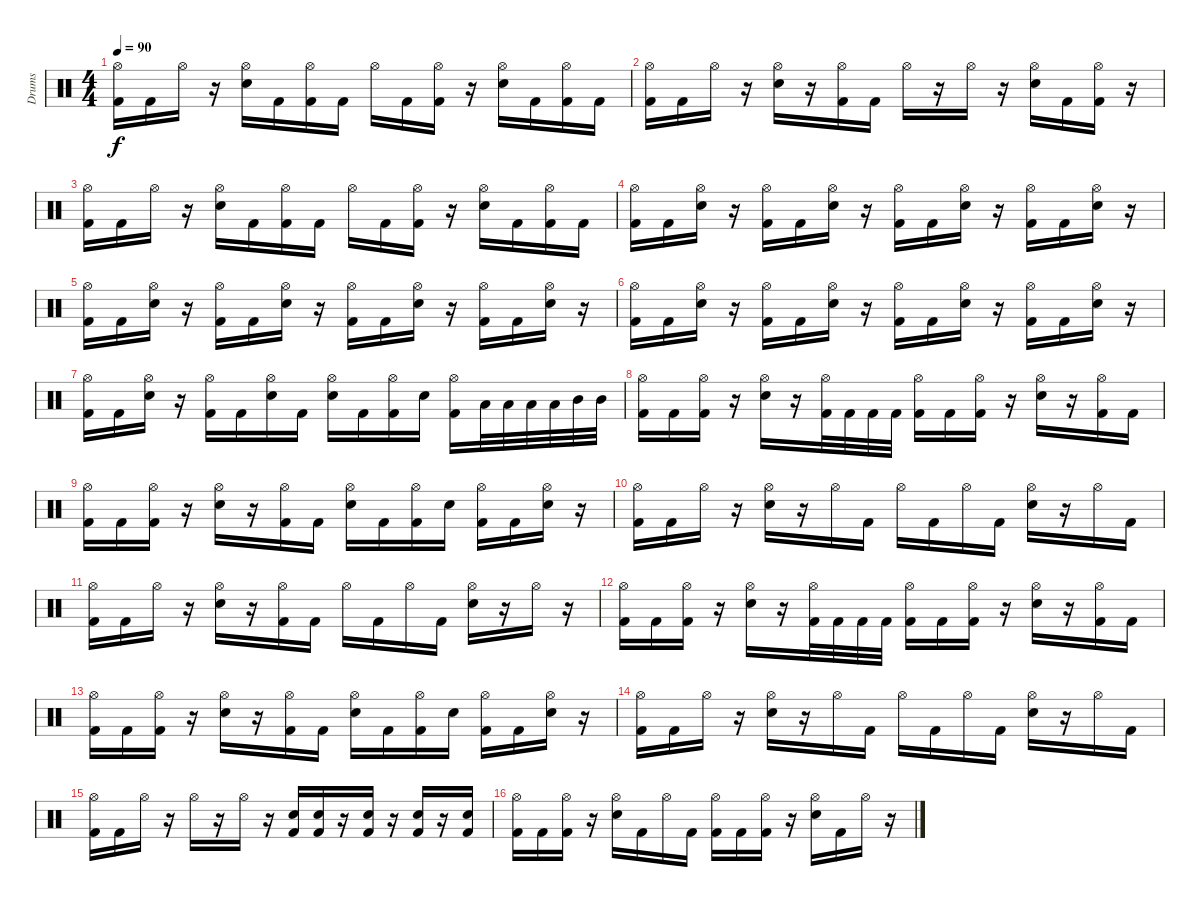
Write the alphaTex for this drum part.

\track ("Drums" "Drums") {instrument percussion}
\staff {score}
\articulation defaults
\ts (4 4)
\tempo 90
\clef neutral
\ks c
("Hi-Hat (open)" "Kick (hit) 2").16{dy f} "Kick (hit) 2".16 "Hi-Hat (open)".16 r.16 ("Hi-Hat (open)" "Snare (hit) 2").16 "Kick (hit) 2".16 ("Hi-Hat (open)" "Kick (hit) 2").16 "Kick (hit) 2".16 "Hi-Hat (open)".16 "Kick (hit) 2".16 ("Hi-Hat (open)" "Kick (hit) 2").16 r.16 ("Hi-Hat (open)" "Snare (hit) 2").16 "Kick (hit) 2".16 ("Hi-Hat (open)" "Kick (hit) 2").16 "Kick (hit) 2".16 |
("Hi-Hat (open)" "Kick (hit) 2").16 "Kick (hit) 2".16 "Hi-Hat (open)".16 r.16 ("Hi-Hat (open)" "Snare (hit) 2").16 r.16 ("Hi-Hat (open)" "Kick (hit) 2").16 "Kick (hit) 2".16 "Hi-Hat (open)".16 r.16 "Hi-Hat (open)".16 r.16 ("Hi-Hat (open)" "Snare (hit) 2").16 "Kick (hit) 2".16 ("Hi-Hat (open)" "Kick (hit) 2").16 r.16 |
("Hi-Hat (open)" "Kick (hit) 2").16 "Kick (hit) 2".16 "Hi-Hat (open)".16 r.16 ("Hi-Hat (open)" "Snare (hit) 2").16 "Kick (hit) 2".16 ("Hi-Hat (open)" "Kick (hit) 2").16 "Kick (hit) 2".16 "Hi-Hat (open)".16 "Kick (hit) 2".16 ("Hi-Hat (open)" "Kick (hit) 2").16 r.16 ("Hi-Hat (open)" "Snare (hit) 2").16 "Kick (hit) 2".16 ("Hi-Hat (open)" "Kick (hit) 2").16 "Kick (hit) 2".16 |
("Hi-Hat (open)" "Kick (hit) 2").16 "Kick (hit) 2".16 ("Hi-Hat (open)" "Snare (hit) 2").16 r.16 ("Hi-Hat (open)" "Kick (hit) 2").16 "Kick (hit) 2".16 ("Hi-Hat (open)" "Snare (hit) 2").16 r.16 ("Hi-Hat (open)" "Kick (hit) 2").16 "Kick (hit) 2".16 ("Hi-Hat (open)" "Snare (hit) 2").16 r.16 ("Hi-Hat (open)" "Kick (hit) 2").16 "Kick (hit) 2".16 ("Hi-Hat (open)" "Snare (hit) 2").16 r.16 |
("Hi-Hat (open)" "Kick (hit) 2").16 "Kick (hit) 2".16 ("Hi-Hat (open)" "Snare (hit) 2").16 r.16 ("Hi-Hat (open)" "Kick (hit) 2").16 "Kick (hit) 2".16 ("Hi-Hat (open)" "Snare (hit) 2").16 r.16 ("Hi-Hat (open)" "Kick (hit) 2").16 "Kick (hit) 2".16 ("Hi-Hat (open)" "Snare (hit) 2").16 r.16 ("Hi-Hat (open)" "Kick (hit) 2").16 "Kick (hit) 2".16 ("Hi-Hat (open)" "Snare (hit) 2").16 r.16 |
("Hi-Hat (open)" "Kick (hit) 2").16 "Kick (hit) 2".16 ("Hi-Hat (open)" "Snare (hit) 2").16 r.16 ("Hi-Hat (open)" "Kick (hit) 2").16 "Kick (hit) 2".16 ("Hi-Hat (open)" "Snare (hit) 2").16 r.16 ("Hi-Hat (open)" "Kick (hit) 2").16 "Kick (hit) 2".16 ("Hi-Hat (open)" "Snare (hit) 2").16 r.16 ("Hi-Hat (open)" "Kick (hit) 2").16 "Kick (hit) 2".16 ("Hi-Hat (open)" "Snare (hit) 2").16 r.16 |
("Hi-Hat (open)" "Kick (hit) 2").16 "Kick (hit) 2".16 ("Hi-Hat (open)" "Snare (hit) 2").16 r.16 ("Hi-Hat (open)" "Kick (hit) 2").16 "Kick (hit) 2".16 ("Hi-Hat (open)" "Snare (hit) 2").16 "Kick (hit) 2".16 ("Hi-Hat (open)" "Snare (hit) 2").16 "Kick (hit) 2".16 ("Hi-Hat (open)" "Kick (hit) 2").16 "Snare (hit) 2".16 ("Hi-Hat (open)" "Kick (hit) 2").16 "Low Floor Tom (hit)".32 "Low Floor Tom (hit)".32 "Low Tom (hit)".32 "Low Tom (hit)".32 "Mid Tom (hit)".32 "Mid Tom (hit)".32 |
("Hi-Hat (open)" "Kick (hit) 2").16 "Kick (hit) 2".16 ("Hi-Hat (open)" "Kick (hit) 2").16 r.16 ("Hi-Hat (open)" "Snare (hit) 2").16 r.16 ("Hi-Hat (open)" "Kick (hit) 2").32 "Kick (hit) 2".32 "Kick (hit) 2".32 "Kick (hit) 2".32 ("Hi-Hat (open)" "Kick (hit) 2").16 "Kick (hit) 2".16 ("Hi-Hat (open)" "Kick (hit) 2").16 r.16 ("Hi-Hat (open)" "Snare (hit) 2").16 r.16 ("Hi-Hat (open)" "Kick (hit) 2").16 "Kick (hit) 2".16 |
("Hi-Hat (open)" "Kick (hit) 2").16 "Kick (hit) 2".16 ("Hi-Hat (open)" "Kick (hit) 2").16 r.16 ("Hi-Hat (open)" "Snare (hit) 2").16 r.16 ("Hi-Hat (open)" "Kick (hit) 2").16 "Kick (hit) 2".16 ("Hi-Hat (open)" "Snare (hit) 2").16 "Kick (hit) 2".16 ("Hi-Hat (open)" "Kick (hit) 2").16 "Snare (hit) 2".16 ("Hi-Hat (open)" "Kick (hit) 2").16 "Kick (hit) 2".16 ("Hi-Hat (open)" "Snare (hit) 2").16 r.16 |
("Hi-Hat (open)" "Kick (hit) 2").16 "Kick (hit) 2".16 "Hi-Hat (open)".16 r.16 ("Hi-Hat (open)" "Snare (hit) 2").16 r.16 "Hi-Hat (open)".16 "Kick (hit) 2".16 "Hi-Hat (open)".16 "Kick (hit) 2".16 "Hi-Hat (open)".16 "Kick (hit) 2".16 ("Hi-Hat (open)" "Snare (hit) 2").16 r.16 "Hi-Hat (open)".16 "Kick (hit) 2".16 |
("Hi-Hat (open)" "Kick (hit) 2").16 "Kick (hit) 2".16 "Hi-Hat (open)".16 r.16 ("Hi-Hat (open)" "Snare (hit) 2").16 r.16 ("Hi-Hat (open)" "Kick (hit) 2").16 "Kick (hit) 2".16 "Hi-Hat (open)".16 "Kick (hit) 2".16 "Hi-Hat (open)".16 "Kick (hit) 2".16 ("Hi-Hat (open)" "Snare (hit) 2").16 r.16 "Hi-Hat (open)".16 r.16 |
("Hi-Hat (open)" "Kick (hit) 2").16 "Kick (hit) 2".16 ("Hi-Hat (open)" "Kick (hit) 2").16 r.16 ("Hi-Hat (open)" "Snare (hit) 2").16 r.16 ("Hi-Hat (open)" "Kick (hit) 2").32 "Kick (hit) 2".32 "Kick (hit) 2".32 "Kick (hit) 2".32 ("Hi-Hat (open)" "Kick (hit) 2").16 "Kick (hit) 2".16 ("Hi-Hat (open)" "Kick (hit) 2").16 r.16 ("Hi-Hat (open)" "Snare (hit) 2").16 r.16 ("Hi-Hat (open)" "Kick (hit) 2").16 "Kick (hit) 2".16 |
("Hi-Hat (open)" "Kick (hit) 2").16 "Kick (hit) 2".16 ("Hi-Hat (open)" "Kick (hit) 2").16 r.16 ("Hi-Hat (open)" "Snare (hit) 2").16 r.16 ("Hi-Hat (open)" "Kick (hit) 2").16 "Kick (hit) 2".16 ("Hi-Hat (open)" "Snare (hit) 2").16 "Kick (hit) 2".16 ("Hi-Hat (open)" "Kick (hit) 2").16 "Snare (hit) 2".16 ("Hi-Hat (open)" "Kick (hit) 2").16 "Kick (hit) 2".16 ("Hi-Hat (open)" "Snare (hit) 2").16 r.16 |
("Hi-Hat (open)" "Kick (hit) 2").16 "Kick (hit) 2".16 "Hi-Hat (open)".16 r.16 ("Hi-Hat (open)" "Snare (hit) 2").16 r.16 "Hi-Hat (open)".16 "Kick (hit) 2".16 "Hi-Hat (open)".16 "Kick (hit) 2".16 "Hi-Hat (open)".16 "Kick (hit) 2".16 ("Hi-Hat (open)" "Snare (hit) 2").16 r.16 "Hi-Hat (open)".16 "Kick (hit) 2".16 |
("Hi-Hat (open)" "Kick (hit) 2").16 "Kick (hit) 2".16 "Hi-Hat (open)".16 r.16 "Hi-Hat (open)".16 r.16 "Hi-Hat (open)".16 r.16 ("Snare (hit) 2" "Kick (hit) 2").16 ("Snare (hit) 2" "Kick (hit) 2").16 r.16 ("Snare (hit) 2" "Kick (hit) 2").16 r.16 ("Snare (hit) 2" "Kick (hit) 2").16 r.16 ("Snare (hit) 2" "Kick (hit) 2").16 |
("Hi-Hat (open)" "Kick (hit) 2").16 "Kick (hit) 2".16 ("Hi-Hat (open)" "Kick (hit) 2").16 r.16 ("Hi-Hat (open)" "Snare (hit) 2").16 "Kick (hit) 2".16 "Hi-Hat (open)".16 "Kick (hit) 2".16 ("Hi-Hat (open)" "Kick (hit) 2").16 "Kick (hit) 2".16 ("Hi-Hat (open)" "Kick (hit) 2").16 r.16 ("Hi-Hat (open)" "Snare (hit) 2").16 "Kick (hit) 2".16 "Hi-Hat (open)".16 r.16
